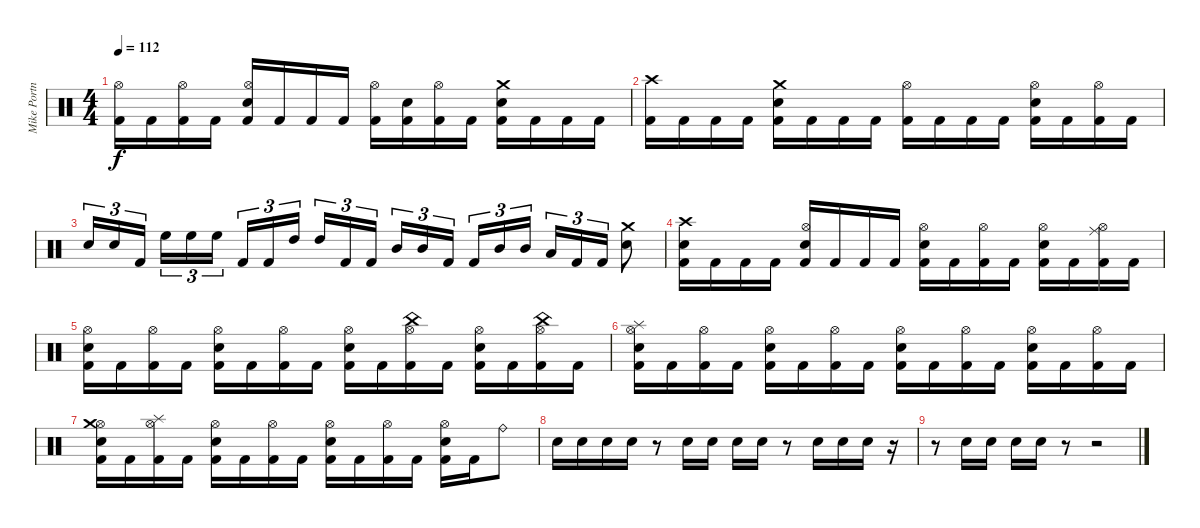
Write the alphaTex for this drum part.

\track ("Mike Portnoy" "Mike Portn") {instrument percussion}
\staff {score}
\articulation defaults
\ts (4 4)
\tempo 112
\clef neutral
\ks c
("Kick (hit) 2" "Hi-Hat (open)").16{dy f} "Kick (hit) 2".16 ("Kick (hit) 2" "Hi-Hat (open)").16 "Kick (hit) 2".16 ("Kick (hit) 2" "Electric Snare (hit)" "Hi-Hat (open)").16 "Kick (hit) 2".16 "Kick (hit) 2".16 "Kick (hit) 2".16 ("Kick (hit) 2" "Hi-Hat (open)").16 ("Kick (hit) 2" "Electric Snare (hit)").16 ("Kick (hit) 2" "Hi-Hat (open)").16 "Kick (hit) 2".16 ("Kick (hit) 2" "Electric Snare (hit)" "Crash medium (hit)").16 "Kick (hit) 2".16 "Kick (hit) 2".16 "Kick (hit) 2".16 |
("Kick (hit) 2" "Crash high (hit)").16 "Kick (hit) 2".16 "Kick (hit) 2".16 "Kick (hit) 2".16 ("Kick (hit) 2" "Electric Snare (hit)" "Crash medium (hit)").16 "Kick (hit) 2".16 "Kick (hit) 2".16 "Kick (hit) 2".16 ("Kick (hit) 2" "Hi-Hat (open)").16 "Kick (hit) 2".16 "Kick (hit) 2".16 "Kick (hit) 2".16 ("Kick (hit) 2" "Electric Snare (hit)" "Hi-Hat (open)").16 "Kick (hit) 2".16 ("Kick (hit) 2" "Hi-Hat (open)").16 "Kick (hit) 2".16 |
"Electric Snare (hit)".16{tu (3 2)} "Electric Snare (hit)".16{tu (3 2)} "Kick (hit) 2".16{tu (3 2)} "High Floor Tom (hit)".16{tu (3 2)} "High Floor Tom (hit)".16{tu (3 2)} "High Floor Tom (hit)".16{tu (3 2)} "Kick (hit) 2".16{tu (3 2)} "Kick (hit) 2".16{tu (3 2)} "High Tom (hit)".16{tu (3 2)} "High Tom (hit)".16{tu (3 2)} "Kick (hit) 2".16{tu (3 2)} "Kick (hit) 2".16{tu (3 2)} "Mid Tom (hit)".16{tu (3 2)} "Mid Tom (hit)".16{tu (3 2)} "Kick (hit) 2".16{tu (3 2)} "Kick (hit) 2".16{tu (3 2)} "Mid Tom (hit)".16{tu (3 2)} "Mid Tom (hit)".16{tu (3 2)} "Low Tom (hit)".16{tu (3 2)} "Kick (hit) 2".16{tu (3 2)} "Kick (hit) 2".16{tu (3 2)} ("Electric Snare (hit)" "Crash medium (hit)").8 |
("Kick (hit) 2" "Electric Snare (hit)" "Crash high (hit)").16 "Kick (hit) 2".16 "Kick (hit) 2".16 "Kick (hit) 2".16 ("Kick (hit) 2" "Electric Snare (hit)" "Hi-Hat (open)").16 "Kick (hit) 2".16 "Kick (hit) 2".16 "Kick (hit) 2".16 ("Kick (hit) 2" "Electric Snare (hit)" "Hi-Hat (open)").16 "Kick (hit) 2".16 ("Kick (hit) 2" "Hi-Hat (open)").16 "Kick (hit) 2".16 ("Kick (hit) 2" "Electric Snare (hit)" "Hi-Hat (open)").16 "Kick (hit) 2".16 ("Kick (hit) 2" "Hi-Hat (open)" "Ride (middle)").16 "Kick (hit) 2".16 |
("Kick (hit) 2" "Electric Snare (hit)" "Hi-Hat (open)").16 "Kick (hit) 2".16 ("Kick (hit) 2" "Hi-Hat (open)").16 "Kick (hit) 2".16 ("Kick (hit) 2" "Electric Snare (hit)" "Hi-Hat (open)").16 "Kick (hit) 2".16 ("Kick (hit) 2" "Hi-Hat (open)").16 "Kick (hit) 2".16 ("Kick (hit) 2" "Electric Snare (hit)" "Hi-Hat (open)").16 "Kick (hit) 2".16 ("Kick (hit) 2" "Hi-Hat (open)" "China (hit)").16 "Kick (hit) 2".16 ("Kick (hit) 2" "Electric Snare (hit)" "Hi-Hat (open)").16 "Kick (hit) 2".16 ("Kick (hit) 2" "Hi-Hat (open)" "China (hit)").16 "Kick (hit) 2".16 |
("Kick (hit) 2" "Electric Snare (hit)" "Hi-Hat (open)" "Splash (hit)").16 "Kick (hit) 2".16 ("Kick (hit) 2" "Hi-Hat (open)").16 "Kick (hit) 2".16 ("Kick (hit) 2" "Electric Snare (hit)" "Hi-Hat (open)").16 "Kick (hit) 2".16 ("Kick (hit) 2" "Hi-Hat (open)").16 "Kick (hit) 2".16 ("Kick (hit) 2" "Electric Snare (hit)" "Hi-Hat (open)").16 "Kick (hit) 2".16 ("Kick (hit) 2" "Hi-Hat (open)").16 "Kick (hit) 2".16 ("Kick (hit) 2" "Electric Snare (hit)" "Hi-Hat (open)").16 "Kick (hit) 2".16 ("Kick (hit) 2" "Hi-Hat (open)").16 "Kick (hit) 2".16 |
("Kick (hit) 2" "Electric Snare (hit)" "Hi-Hat (open)" "Crash medium (hit)").16 "Kick (hit) 2".16 ("Kick (hit) 2" "Hi-Hat (open)" "Splash (hit)").16 "Kick (hit) 2".16 ("Kick (hit) 2" "Electric Snare (hit)" "Hi-Hat (open)").16 "Kick (hit) 2".16 ("Kick (hit) 2" "Hi-Hat (open)").16 "Kick (hit) 2".16 ("Kick (hit) 2" "Electric Snare (hit)" "Hi-Hat (open)").16 "Kick (hit) 2".16 ("Kick (hit) 2" "Hi-Hat (open)").16 "Kick (hit) 2".16 ("Kick (hit) 2" "Electric Snare (hit)" "Hi-Hat (open)").16 "Kick (hit) 2".16 "Ride (bell)".8 |
"Electric Snare (hit)".16 "Electric Snare (hit)".16 "Electric Snare (hit)".16 "Electric Snare (hit)".16 r.8 "Electric Snare (hit)".16 "Electric Snare (hit)".16 "Electric Snare (hit)".16 "Electric Snare (hit)".16 r.8 "Electric Snare (hit)".16 "Electric Snare (hit)".16 "Electric Snare (hit)".16 r.16 |
r.8 "Electric Snare (hit)".16 "Electric Snare (hit)".16 "Electric Snare (hit)".16 "Electric Snare (hit)".16 r.8 r.2
